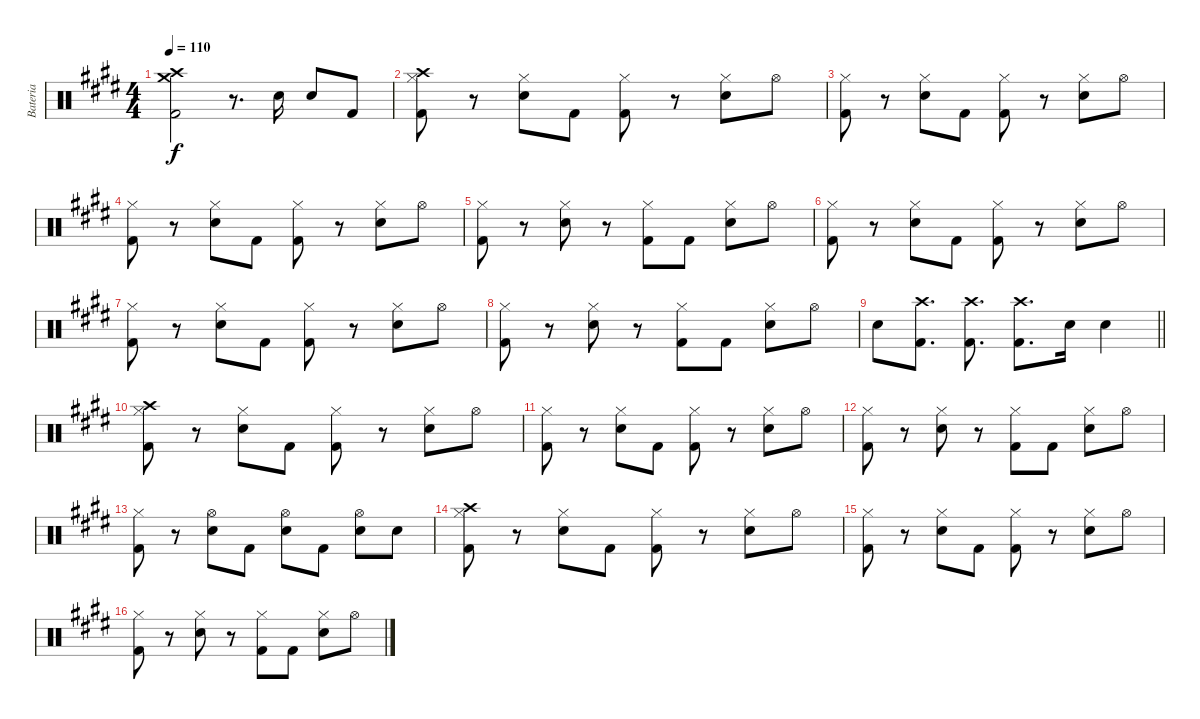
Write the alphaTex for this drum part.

\track ("Bateria" "Bateria") {instrument percussion}
\staff {score}
\articulation defaults
\ts (4 4)
\section ("" "")
\tempo 110
\clef neutral
\ks e
("Kick (hit) 2" "Crash medium (hit)" "Crash high (hit)").2{dy f} r.8{d} "Snare (hit) 2".16 "Snare (hit) 2".8 "Kick (hit) 2".8 |
("Hi-Hat (closed)" "Kick (hit) 2" "Crash high (hit)").8 r.8 ("Hi-Hat (closed)" "Snare (hit) 2").8 "Kick (hit) 2".8 ("Hi-Hat (closed)" "Kick (hit) 2").8 r.8 ("Hi-Hat (closed)" "Snare (hit) 2").8 "Hi-Hat (open)".8 |
("Hi-Hat (closed)" "Kick (hit) 2").8 r.8 ("Hi-Hat (closed)" "Snare (hit) 2").8 "Kick (hit) 2".8 ("Hi-Hat (closed)" "Kick (hit) 2").8 r.8 ("Hi-Hat (closed)" "Snare (hit) 2").8 "Hi-Hat (open)".8 |
("Hi-Hat (closed)" "Kick (hit) 2").8 r.8 ("Hi-Hat (closed)" "Snare (hit) 2").8 "Kick (hit) 2".8 ("Hi-Hat (closed)" "Kick (hit) 2").8 r.8 ("Hi-Hat (closed)" "Snare (hit) 2").8 "Hi-Hat (open)".8 |
("Hi-Hat (closed)" "Kick (hit) 2").8 r.8 ("Hi-Hat (closed)" "Snare (hit) 2").8 r.8 ("Hi-Hat (closed)" "Kick (hit) 2").8 "Kick (hit) 2".8 ("Hi-Hat (closed)" "Snare (hit) 2").8 "Hi-Hat (open)".8 |
("Hi-Hat (closed)" "Kick (hit) 2").8 r.8 ("Hi-Hat (closed)" "Snare (hit) 2").8 "Kick (hit) 2".8 ("Hi-Hat (closed)" "Kick (hit) 2").8 r.8 ("Hi-Hat (closed)" "Snare (hit) 2").8 "Hi-Hat (open)".8 |
("Hi-Hat (closed)" "Kick (hit) 2").8 r.8 ("Hi-Hat (closed)" "Snare (hit) 2").8 "Kick (hit) 2".8 ("Hi-Hat (closed)" "Kick (hit) 2").8 r.8 ("Hi-Hat (closed)" "Snare (hit) 2").8 "Hi-Hat (open)".8 |
("Hi-Hat (closed)" "Kick (hit) 2").8 r.8 ("Hi-Hat (closed)" "Snare (hit) 2").8 r.8 ("Hi-Hat (closed)" "Kick (hit) 2").8 "Kick (hit) 2".8 ("Hi-Hat (closed)" "Snare (hit) 2").8 "Hi-Hat (open)".8 |
\barLineRight lightlight "Snare (hit) 2".8
("Kick (hit) 2" "Crash high (hit)").8{d} ("Kick (hit) 2" "Crash high (hit)").8{d} ("Kick (hit) 2" "Crash high (hit)").8{d} "Snare (hit) 2".16 "Snare (hit) 2".4 |
\section ("" "")
("Hi-Hat (closed)" "Kick (hit) 2" "Crash high (hit)").8 r.8 ("Hi-Hat (closed)" "Snare (hit) 2").8 "Kick (hit) 2".8 ("Hi-Hat (closed)" "Kick (hit) 2").8 r.8 ("Hi-Hat (closed)" "Snare (hit) 2").8 "Hi-Hat (open)".8 |
("Hi-Hat (closed)" "Kick (hit) 2").8 r.8 ("Hi-Hat (closed)" "Snare (hit) 2").8 "Kick (hit) 2".8 ("Hi-Hat (closed)" "Kick (hit) 2").8 r.8 ("Hi-Hat (closed)" "Snare (hit) 2").8 "Hi-Hat (open)".8 |
("Hi-Hat (closed)" "Kick (hit) 2").8 r.8 ("Hi-Hat (closed)" "Snare (hit) 2").8 r.8 ("Hi-Hat (closed)" "Kick (hit) 2").8 "Kick (hit) 2".8 ("Hi-Hat (closed)" "Snare (hit) 2").8 "Hi-Hat (open)".8 |
("Hi-Hat (closed)" "Kick (hit) 2").8 r.8 ("Hi-Hat (open)" "Snare (hit) 2").8 "Kick (hit) 2".8 ("Hi-Hat (open)" "Snare (hit) 2").8 "Kick (hit) 2".8 ("Hi-Hat (open)" "Snare (hit) 2").8 "Snare (hit) 2".8 |
("Hi-Hat (closed)" "Kick (hit) 2" "Crash high (hit)").8 r.8 ("Hi-Hat (closed)" "Snare (hit) 2").8 "Kick (hit) 2".8 ("Hi-Hat (closed)" "Kick (hit) 2").8 r.8 ("Hi-Hat (closed)" "Snare (hit) 2").8 "Hi-Hat (open)".8 |
("Hi-Hat (closed)" "Kick (hit) 2").8 r.8 ("Hi-Hat (closed)" "Snare (hit) 2").8 "Kick (hit) 2".8 ("Hi-Hat (closed)" "Kick (hit) 2").8 r.8 ("Hi-Hat (closed)" "Snare (hit) 2").8 "Hi-Hat (open)".8 |
("Hi-Hat (closed)" "Kick (hit) 2").8 r.8 ("Hi-Hat (closed)" "Snare (hit) 2").8 r.8 ("Hi-Hat (closed)" "Kick (hit) 2").8 "Kick (hit) 2".8 ("Hi-Hat (closed)" "Snare (hit) 2").8 "Hi-Hat (open)".8
